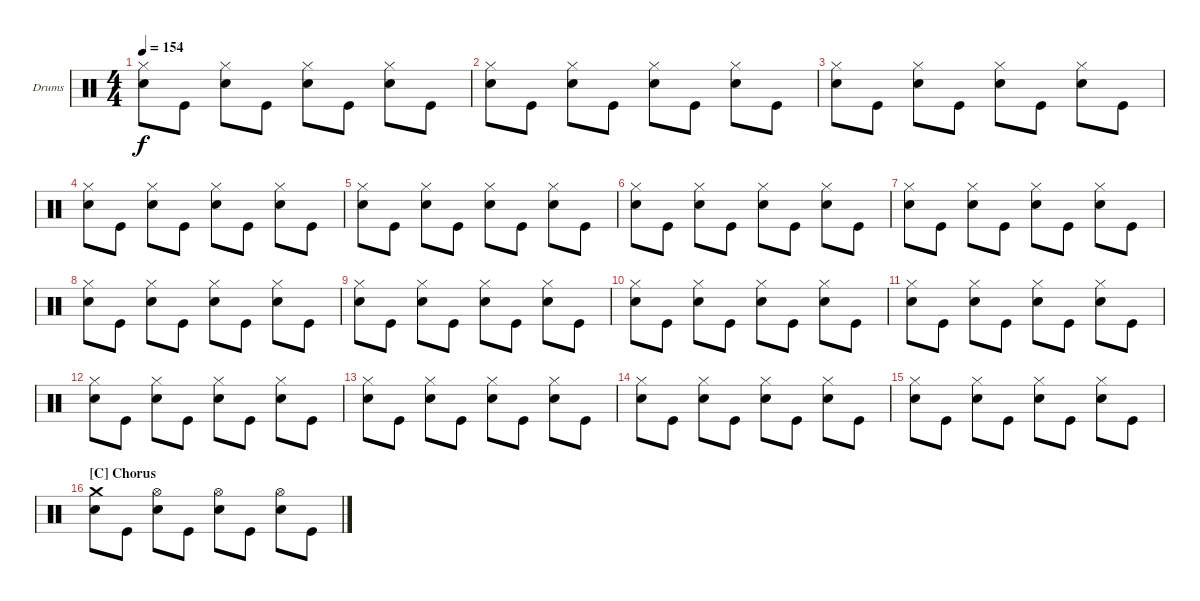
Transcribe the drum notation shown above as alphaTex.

\defaultSystemsLayout 4
\bracketExtendMode groupsimilarinstruments
\firstSystemTrackNameOrientation horizontal
\otherSystemsTrackNameOrientation horizontal
\track ("Drumkit" "Drums") {instrument percussion}
\staff {score}
\articulation defaults
\ts (4 4)
\tempo 154
\clef neutral
\scale
1.02648
\ks c
("Hi-Hat (closed)" "Snare (hit) 2").8{dy f} "Kick (hit)".8 ("Hi-Hat (closed)" "Snare (hit) 2").8 "Kick (hit)".8 ("Hi-Hat (closed)" "Snare (hit) 2").8 "Kick (hit)".8 ("Hi-Hat (closed)" "Snare (hit) 2").8 "Kick (hit)".8 |
\scale
0.973518 ("Hi-Hat (closed)" "Snare (hit) 2").8 "Kick (hit)".8 ("Hi-Hat (closed)" "Snare (hit) 2").8 "Kick (hit)".8 ("Hi-Hat (closed)" "Snare (hit) 2").8 "Kick (hit)".8 ("Hi-Hat (closed)" "Snare (hit) 2").8 "Kick (hit)".8 |
\scale
1.02648 ("Hi-Hat (closed)" "Snare (hit) 2").8 "Kick (hit)".8 ("Hi-Hat (closed)" "Snare (hit) 2").8 "Kick (hit)".8 ("Hi-Hat (closed)" "Snare (hit) 2").8 "Kick (hit)".8 ("Hi-Hat (closed)" "Snare (hit) 2").8 "Kick (hit)".8 |
\scale
0.973518 ("Hi-Hat (closed)" "Snare (hit) 2").8 "Kick (hit)".8 ("Hi-Hat (closed)" "Snare (hit) 2").8 "Kick (hit)".8 ("Hi-Hat (closed)" "Snare (hit) 2").8 "Kick (hit)".8 ("Hi-Hat (closed)" "Snare (hit) 2").8 "Kick (hit)".8 |
\scale
1.02648 ("Hi-Hat (closed)" "Snare (hit) 2").8 "Kick (hit)".8 ("Hi-Hat (closed)" "Snare (hit) 2").8 "Kick (hit)".8 ("Hi-Hat (closed)" "Snare (hit) 2").8 "Kick (hit)".8 ("Hi-Hat (closed)" "Snare (hit) 2").8 "Kick (hit)".8 |
\scale
0.973518 ("Hi-Hat (closed)" "Snare (hit) 2").8 "Kick (hit)".8 ("Hi-Hat (closed)" "Snare (hit) 2").8 "Kick (hit)".8 ("Hi-Hat (closed)" "Snare (hit) 2").8 "Kick (hit)".8 ("Hi-Hat (closed)" "Snare (hit) 2").8 "Kick (hit)".8 |
\scale
1.02648 ("Hi-Hat (closed)" "Snare (hit) 2").8 "Kick (hit)".8 ("Hi-Hat (closed)" "Snare (hit) 2").8 "Kick (hit)".8 ("Hi-Hat (closed)" "Snare (hit) 2").8 "Kick (hit)".8 ("Hi-Hat (closed)" "Snare (hit) 2").8 "Kick (hit)".8 |
\scale
0.973518 ("Hi-Hat (closed)" "Snare (hit) 2").8 "Kick (hit)".8 ("Hi-Hat (closed)" "Snare (hit) 2").8 "Kick (hit)".8 ("Hi-Hat (closed)" "Snare (hit) 2").8 "Kick (hit)".8 ("Hi-Hat (closed)" "Snare (hit) 2").8 "Kick (hit)".8 |
\scale
1.02648 ("Hi-Hat (closed)" "Snare (hit) 2").8 "Kick (hit)".8 ("Hi-Hat (closed)" "Snare (hit) 2").8 "Kick (hit)".8 ("Hi-Hat (closed)" "Snare (hit) 2").8 "Kick (hit)".8 ("Hi-Hat (closed)" "Snare (hit) 2").8 "Kick (hit)".8 |
\scale
0.973518 ("Hi-Hat (closed)" "Snare (hit) 2").8 "Kick (hit)".8 ("Hi-Hat (closed)" "Snare (hit) 2").8 "Kick (hit)".8 ("Hi-Hat (closed)" "Snare (hit) 2").8 "Kick (hit)".8 ("Hi-Hat (closed)" "Snare (hit) 2").8 "Kick (hit)".8 |
\scale
1.02648 ("Hi-Hat (closed)" "Snare (hit) 2").8 "Kick (hit)".8 ("Hi-Hat (closed)" "Snare (hit) 2").8 "Kick (hit)".8 ("Hi-Hat (closed)" "Snare (hit) 2").8 "Kick (hit)".8 ("Hi-Hat (closed)" "Snare (hit) 2").8 "Kick (hit)".8 |
\scale
0.973518 ("Hi-Hat (closed)" "Snare (hit) 2").8 "Kick (hit)".8 ("Hi-Hat (closed)" "Snare (hit) 2").8 "Kick (hit)".8 ("Hi-Hat (closed)" "Snare (hit) 2").8 "Kick (hit)".8 ("Hi-Hat (closed)" "Snare (hit) 2").8 "Kick (hit)".8 |
\scale
1.02648 ("Hi-Hat (closed)" "Snare (hit) 2").8 "Kick (hit)".8 ("Hi-Hat (closed)" "Snare (hit) 2").8 "Kick (hit)".8 ("Hi-Hat (closed)" "Snare (hit) 2").8 "Kick (hit)".8 ("Hi-Hat (closed)" "Snare (hit) 2").8 "Kick (hit)".8 |
\scale
0.973518 ("Hi-Hat (closed)" "Snare (hit) 2").8 "Kick (hit)".8 ("Hi-Hat (closed)" "Snare (hit) 2").8 "Kick (hit)".8 ("Hi-Hat (closed)" "Snare (hit) 2").8 "Kick (hit)".8 ("Hi-Hat (closed)" "Snare (hit) 2").8 "Kick (hit)".8 |
\scale
1.02648 ("Hi-Hat (closed)" "Snare (hit) 2").8 "Kick (hit)".8 ("Hi-Hat (closed)" "Snare (hit) 2").8 "Kick (hit)".8 ("Hi-Hat (closed)" "Snare (hit) 2").8 "Kick (hit)".8 ("Hi-Hat (closed)" "Snare (hit) 2").8 "Kick (hit)".8 |
\section ("C" "Chorus")
\scale
0.973518 ("Crash medium (hit)" "Snare (hit) 2").8 "Kick (hit)".8 ("Hi-Hat (open)" "Snare (hit) 2").8 "Kick (hit)".8 ("Hi-Hat (open)" "Snare (hit) 2").8 "Kick (hit)".8 ("Hi-Hat (open)" "Snare (hit) 2").8 "Kick (hit)".8
